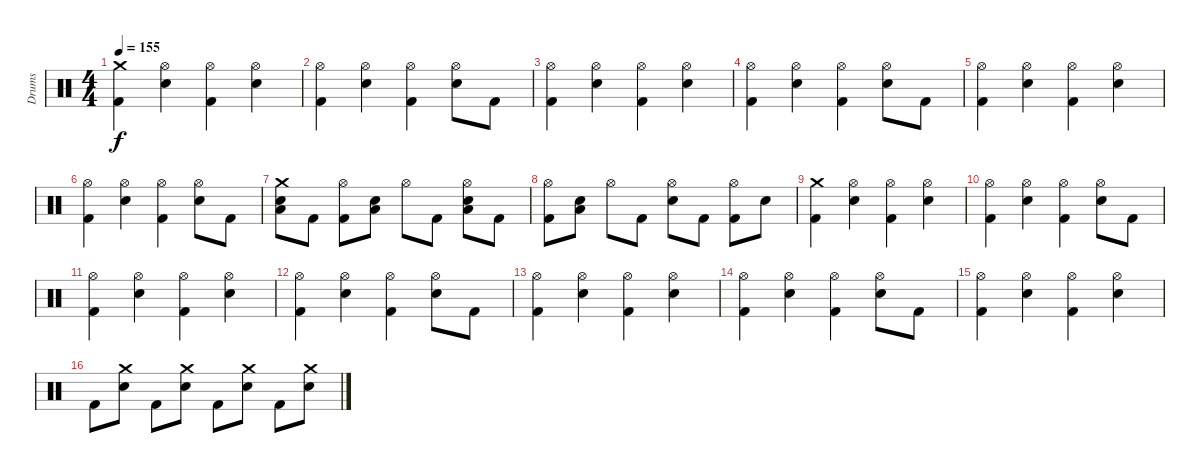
\track ("Drums" "Drums") {instrument percussion}
\staff {score}
\articulation defaults
\ts (4 4)
\tempo 155
\clef neutral
\ks c
("Crash medium (hit)" "Kick (hit) 2").4{dy f} ("Hi-Hat (open)" "Snare (hit) 2").4 ("Hi-Hat (open)" "Kick (hit) 2").4 ("Hi-Hat (open)" "Snare (hit) 2").4 |
("Hi-Hat (open)" "Kick (hit) 2").4 ("Hi-Hat (open)" "Snare (hit) 2").4 ("Hi-Hat (open)" "Kick (hit) 2").4 ("Hi-Hat (open)" "Snare (hit) 2").8 "Kick (hit) 2".8 |
("Hi-Hat (open)" "Kick (hit) 2").4 ("Hi-Hat (open)" "Snare (hit) 2").4 ("Hi-Hat (open)" "Kick (hit) 2").4 ("Hi-Hat (open)" "Snare (hit) 2").4 |
("Hi-Hat (open)" "Kick (hit) 2").4 ("Hi-Hat (open)" "Snare (hit) 2").4 ("Hi-Hat (open)" "Kick (hit) 2").4 ("Hi-Hat (open)" "Snare (hit) 2").8 "Kick (hit) 2".8 |
("Hi-Hat (open)" "Kick (hit) 2").4 ("Hi-Hat (open)" "Snare (hit) 2").4 ("Hi-Hat (open)" "Kick (hit) 2").4 ("Hi-Hat (open)" "Snare (hit) 2").4 |
("Hi-Hat (open)" "Kick (hit) 2").4 ("Hi-Hat (open)" "Snare (hit) 2").4 ("Hi-Hat (open)" "Kick (hit) 2").4 ("Hi-Hat (open)" "Snare (hit) 2").8 "Kick (hit) 2".8 |
("Crash medium (hit)" "Snare (hit) 2" "Low Floor Tom (hit)").8 "Kick (hit) 2".8 ("Hi-Hat (open)" "Kick (hit) 2").8 ("Snare (hit) 2" "Low Floor Tom (hit)").8 "Hi-Hat (open)".8 "Kick (hit) 2".8 ("Hi-Hat (open)" "Snare (hit) 2" "Low Floor Tom (hit)").8 "Kick (hit) 2".8 |
("Hi-Hat (open)" "Kick (hit) 2").8 ("Snare (hit) 2" "Low Floor Tom (hit)").8 "Hi-Hat (open)".8 "Kick (hit) 2".8 ("Hi-Hat (open)" "Snare (hit) 2").8 "Kick (hit) 2".8 ("Hi-Hat (open)" "Kick (hit) 2").8 "Snare (hit) 2".8 |
("Crash medium (hit)" "Kick (hit) 2").4 ("Hi-Hat (open)" "Snare (hit) 2").4 ("Hi-Hat (open)" "Kick (hit) 2").4 ("Hi-Hat (open)" "Snare (hit) 2").4 |
("Hi-Hat (open)" "Kick (hit) 2").4 ("Hi-Hat (open)" "Snare (hit) 2").4 ("Hi-Hat (open)" "Kick (hit) 2").4 ("Hi-Hat (open)" "Snare (hit) 2").8 "Kick (hit) 2".8 |
("Hi-Hat (open)" "Kick (hit) 2").4 ("Hi-Hat (open)" "Snare (hit) 2").4 ("Hi-Hat (open)" "Kick (hit) 2").4 ("Hi-Hat (open)" "Snare (hit) 2").4 |
("Hi-Hat (open)" "Kick (hit) 2").4 ("Hi-Hat (open)" "Snare (hit) 2").4 ("Hi-Hat (open)" "Kick (hit) 2").4 ("Hi-Hat (open)" "Snare (hit) 2").8 "Kick (hit) 2".8 |
("Hi-Hat (open)" "Kick (hit) 2").4 ("Hi-Hat (open)" "Snare (hit) 2").4 ("Hi-Hat (open)" "Kick (hit) 2").4 ("Hi-Hat (open)" "Snare (hit) 2").4 |
("Hi-Hat (open)" "Kick (hit) 2").4 ("Hi-Hat (open)" "Snare (hit) 2").4 ("Hi-Hat (open)" "Kick (hit) 2").4 ("Hi-Hat (open)" "Snare (hit) 2").8 "Kick (hit) 2".8 |
("Hi-Hat (open)" "Kick (hit) 2").4 ("Hi-Hat (open)" "Snare (hit) 2").4 ("Hi-Hat (open)" "Kick (hit) 2").4 ("Hi-Hat (open)" "Snare (hit) 2").4 |
"Kick (hit) 2".8 ("Crash medium (hit)" "Snare (hit) 2").8 "Kick (hit) 2".8 ("Crash medium (hit)" "Snare (hit) 2").8 "Kick (hit) 2".8 ("Crash medium (hit)" "Snare (hit) 2").8 "Kick (hit) 2".8 ("Crash medium (hit)" "Snare (hit) 2").8
